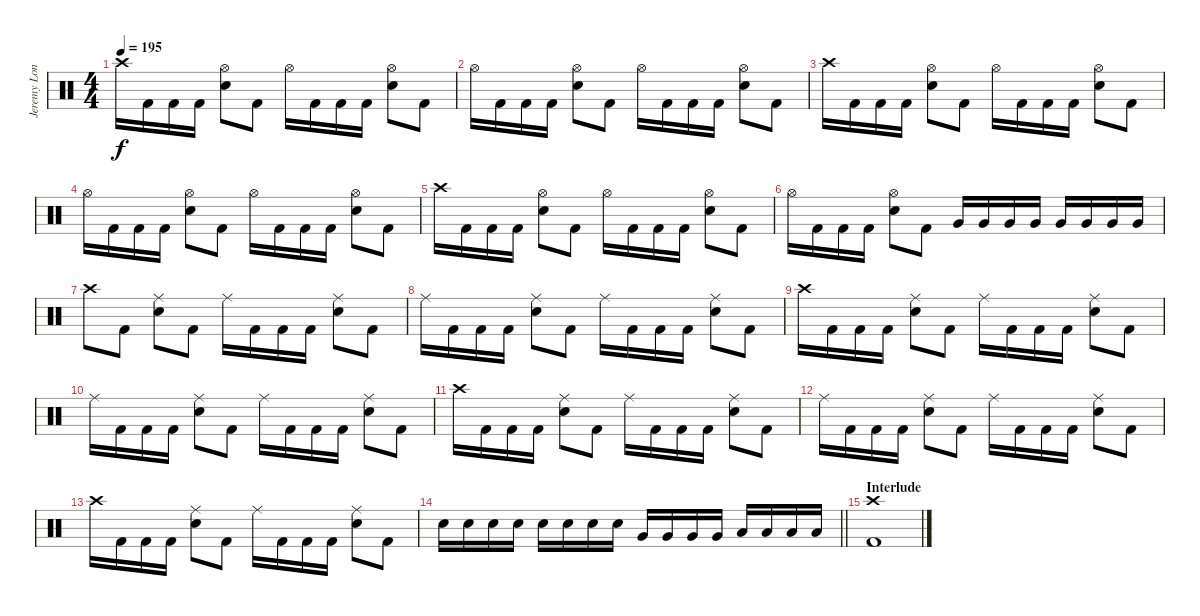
\track ("Jeremy London" "Jeremy Lon") {instrument percussion}
\staff {score}
\articulation defaults
\ts (4 4)
\tempo 195
\clef neutral
\ks c "Crash high (hit)".16{dy f} "Kick (hit) 2".16 "Kick (hit) 2".16 "Kick (hit) 2".16
("Hi-Hat (open)" "Electric Snare (hit)").8 "Kick (hit) 2".8 "Hi-Hat (open)".16 "Kick (hit) 2".16 "Kick (hit) 2".16 "Kick (hit) 2".16 ("Hi-Hat (open)" "Electric Snare (hit)").8 "Kick (hit) 2".8 |
"Hi-Hat (open)".16 "Kick (hit) 2".16 "Kick (hit) 2".16 "Kick (hit) 2".16 ("Hi-Hat (open)" "Electric Snare (hit)").8 "Kick (hit) 2".8 "Hi-Hat (open)".16 "Kick (hit) 2".16 "Kick (hit) 2".16 "Kick (hit) 2".16 ("Hi-Hat (open)" "Electric Snare (hit)").8 "Kick (hit) 2".8 |
"Crash high (hit)".16 "Kick (hit) 2".16 "Kick (hit) 2".16 "Kick (hit) 2".16 ("Hi-Hat (open)" "Electric Snare (hit)").8 "Kick (hit) 2".8 "Hi-Hat (open)".16 "Kick (hit) 2".16 "Kick (hit) 2".16 "Kick (hit) 2".16 ("Hi-Hat (open)" "Electric Snare (hit)").8 "Kick (hit) 2".8 |
"Hi-Hat (open)".16 "Kick (hit) 2".16 "Kick (hit) 2".16 "Kick (hit) 2".16 ("Hi-Hat (open)" "Electric Snare (hit)").8 "Kick (hit) 2".8 "Hi-Hat (open)".16 "Kick (hit) 2".16 "Kick (hit) 2".16 "Kick (hit) 2".16 ("Hi-Hat (open)" "Electric Snare (hit)").8 "Kick (hit) 2".8 |
"Crash high (hit)".16 "Kick (hit) 2".16 "Kick (hit) 2".16 "Kick (hit) 2".16 ("Hi-Hat (open)" "Electric Snare (hit)").8 "Kick (hit) 2".8 "Hi-Hat (open)".16 "Kick (hit) 2".16 "Kick (hit) 2".16 "Kick (hit) 2".16 ("Hi-Hat (open)" "Electric Snare (hit)").8 "Kick (hit) 2".8 |
"Hi-Hat (open)".16 "Kick (hit) 2".16 "Kick (hit) 2".16 "Kick (hit) 2".16 ("Hi-Hat (open)" "Electric Snare (hit)").8 "Kick (hit) 2".8 "Very Low Tom (hit)".16 "Very Low Tom (hit)".16 "Very Low Tom (hit)".16 "Very Low Tom (hit)".16 "Very Low Tom (hit)".16 "Very Low Tom (hit)".16 "Very Low Tom (hit)".16 "Very Low Tom (hit)".16 |
"Crash high (hit)".8 "Kick (hit) 2".8 ("Ride (middle)" "Electric Snare (hit)").8 "Kick (hit) 2".8 "Ride (middle)".16 "Kick (hit) 2".16 "Kick (hit) 2".16 "Kick (hit) 2".16 ("Ride (middle)" "Electric Snare (hit)").8 "Kick (hit) 2".8 |
"Ride (middle)".16 "Kick (hit) 2".16 "Kick (hit) 2".16 "Kick (hit) 2".16 ("Ride (middle)" "Electric Snare (hit)").8 "Kick (hit) 2".8 "Ride (middle)".16 "Kick (hit) 2".16 "Kick (hit) 2".16 "Kick (hit) 2".16 ("Ride (middle)" "Electric Snare (hit)").8 "Kick (hit) 2".8 |
"Crash high (hit)".16 "Kick (hit) 2".16 "Kick (hit) 2".16 "Kick (hit) 2".16 ("Ride (middle)" "Electric Snare (hit)").8 "Kick (hit) 2".8 "Ride (middle)".16 "Kick (hit) 2".16 "Kick (hit) 2".16 "Kick (hit) 2".16 ("Ride (middle)" "Electric Snare (hit)").8 "Kick (hit) 2".8 |
"Ride (middle)".16 "Kick (hit) 2".16 "Kick (hit) 2".16 "Kick (hit) 2".16 ("Ride (middle)" "Electric Snare (hit)").8 "Kick (hit) 2".8 "Ride (middle)".16 "Kick (hit) 2".16 "Kick (hit) 2".16 "Kick (hit) 2".16 ("Ride (middle)" "Electric Snare (hit)").8 "Kick (hit) 2".8 |
"Crash high (hit)".16 "Kick (hit) 2".16 "Kick (hit) 2".16 "Kick (hit) 2".16 ("Ride (middle)" "Electric Snare (hit)").8 "Kick (hit) 2".8 "Ride (middle)".16 "Kick (hit) 2".16 "Kick (hit) 2".16 "Kick (hit) 2".16 ("Ride (middle)" "Electric Snare (hit)").8 "Kick (hit) 2".8 |
"Ride (middle)".16 "Kick (hit) 2".16 "Kick (hit) 2".16 "Kick (hit) 2".16 ("Ride (middle)" "Electric Snare (hit)").8 "Kick (hit) 2".8 "Ride (middle)".16 "Kick (hit) 2".16 "Kick (hit) 2".16 "Kick (hit) 2".16 ("Ride (middle)" "Electric Snare (hit)").8 "Kick (hit) 2".8 |
"Crash high (hit)".16 "Kick (hit) 2".16 "Kick (hit) 2".16 "Kick (hit) 2".16 ("Ride (middle)" "Electric Snare (hit)").8 "Kick (hit) 2".8 "Ride (middle)".16 "Kick (hit) 2".16 "Kick (hit) 2".16 "Kick (hit) 2".16 ("Ride (middle)" "Electric Snare (hit)").8 "Kick (hit) 2".8 |
\barLineRight lightlight "Electric Snare (hit)".16 "Electric Snare (hit)".16 "Electric Snare (hit)".16 "Electric Snare (hit)".16 "Electric Snare (hit)".16 "Electric Snare (hit)".16 "Electric Snare (hit)".16 "Electric Snare (hit)".16 "Very Low Tom (hit)".16 "Very Low Tom (hit)".16 "Very Low Tom (hit)".16 "Very Low Tom (hit)".16 "Low Floor Tom (hit)".16 "Low Floor Tom (hit)".16 "Low Floor Tom (hit)".16 "Low Floor Tom (hit)".16
|
\section ("" "Interlude")
("Crash high (hit)" "Kick (hit) 2").1
